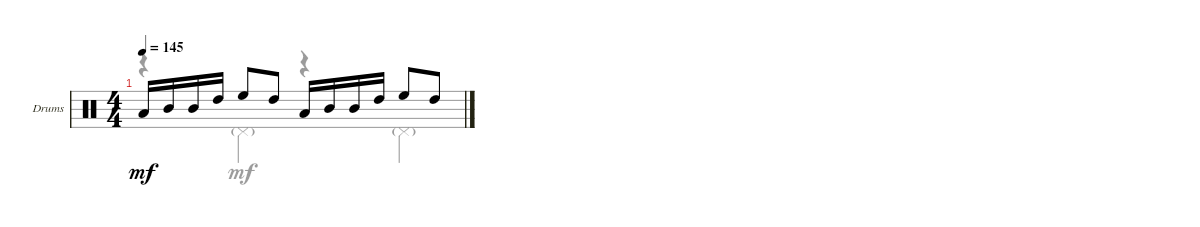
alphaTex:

\defaultSystemsLayout 4
\bracketExtendMode groupsimilarinstruments
\firstSystemTrackNameOrientation horizontal
\otherSystemsTrackNameOrientation horizontal
\track ("Drumkit" "Drums") {instrument percussion}
\staff {score}
\articulation defaults
\voice
\ts (4 4)
\tempo 145
\clef neutral
\ks c "Low Tom (hit)".16{dy mf} "Mid Tom (hit)".16 "Mid Tom (hit)".16 "High Tom (hit)".16 "High Floor Tom (hit)".8 "High Tom (hit)".8 "Low Tom (hit)".16 "Mid Tom (hit)".16 "Mid Tom (hit)".16 "High Tom (hit)".16 "High Floor Tom (hit)".8 "High Tom (hit)".8
|
|
\voice
\clef neutral
\ks c
r.4{dy mf} "Pedal Hi-Hat (hit)"{g}.4 r.4 "Pedal Hi-Hat (hit)"{g}.4 |
|
